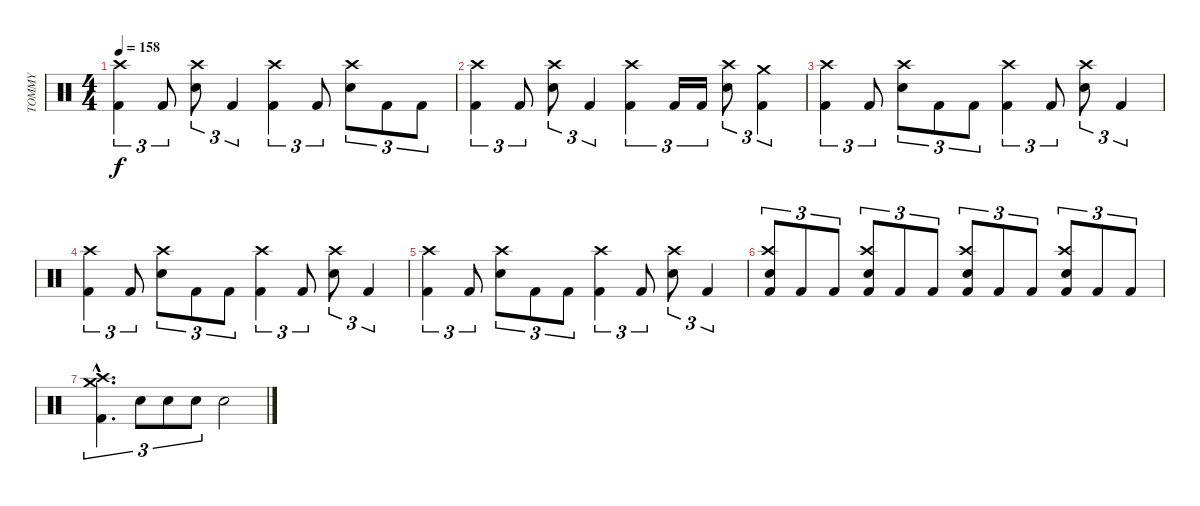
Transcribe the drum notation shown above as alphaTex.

\track ("TOMMY" "TOMMY") {instrument percussion}
\staff {score}
\articulation defaults
\ts (4 4)
\tempo 158
\clef neutral
\ks c
("Kick (hit) 2" "Crash high (hit)").4{tu (3 2) dy f} "Kick (hit) 2".8{tu (3 2)} ("Snare (hit) 2" "Crash high (hit)").8{tu (3 2)} "Kick (hit) 2".4{tu (3 2)} ("Kick (hit) 2" "Crash high (hit)").4{tu (3 2)} "Kick (hit) 2".8{tu (3 2)} ("Snare (hit) 2" "Crash high (hit)").8{tu (3 2)} "Kick (hit) 2".8{tu (3 2)} "Kick (hit) 2".8{tu (3 2)} |
("Kick (hit) 2" "Crash high (hit)").4{tu (3 2)} "Kick (hit) 2".8{tu (3 2)} ("Snare (hit) 2" "Crash high (hit)").8{tu (3 2)} "Kick (hit) 2".4{tu (3 2)} ("Kick (hit) 2" "Crash high (hit)").4{tu (3 2)} "Kick (hit) 2".16{tu (3 2)} "Kick (hit) 2".16{tu (3 2)} ("Snare (hit) 2" "Crash high (hit)").8{tu (3 2)} ("Kick (hit) 2" "Crash medium (hit)").4{tu (3 2)} |
("Kick (hit) 2" "Crash high (hit)").4{tu (3 2)} "Kick (hit) 2".8{tu (3 2)} ("Snare (hit) 2" "Crash high (hit)").8{tu (3 2)} "Kick (hit) 2".8{tu (3 2)} "Kick (hit) 2".8{tu (3 2)} ("Kick (hit) 2" "Crash high (hit)").4{tu (3 2)} "Kick (hit) 2".8{tu (3 2)} ("Snare (hit) 2" "Crash high (hit)").8{tu (3 2)} "Kick (hit) 2".4{tu (3 2)} |
("Kick (hit) 2" "Crash high (hit)").4{tu (3 2)} "Kick (hit) 2".8{tu (3 2)} ("Snare (hit) 2" "Crash high (hit)").8{tu (3 2)} "Kick (hit) 2".8{tu (3 2)} "Kick (hit) 2".8{tu (3 2)} ("Kick (hit) 2" "Crash high (hit)").4{tu (3 2)} "Kick (hit) 2".8{tu (3 2)} ("Snare (hit) 2" "Crash high (hit)").8{tu (3 2)} "Kick (hit) 2".4{tu (3 2)} |
("Kick (hit) 2" "Crash high (hit)").4{tu (3 2)} "Kick (hit) 2".8{tu (3 2)} ("Snare (hit) 2" "Crash high (hit)").8{tu (3 2)} "Kick (hit) 2".8{tu (3 2)} "Kick (hit) 2".8{tu (3 2)} ("Kick (hit) 2" "Crash high (hit)").4{tu (3 2)} "Kick (hit) 2".8{tu (3 2)} ("Snare (hit) 2" "Crash high (hit)").8{tu (3 2)} "Kick (hit) 2".4{tu (3 2)} |
("Snare (hit) 2" "Kick (hit) 2" "Crash high (hit)").8{tu (3 2)} "Kick (hit) 2".8{tu (3 2)} "Kick (hit) 2".8{tu (3 2)} ("Snare (hit) 2" "Kick (hit) 2" "Crash high (hit)").8{tu (3 2)} "Kick (hit) 2".8{tu (3 2)} "Kick (hit) 2".8{tu (3 2)} ("Snare (hit) 2" "Kick (hit) 2" "Crash high (hit)").8{tu (3 2)} "Kick (hit) 2".8{tu (3 2)} "Kick (hit) 2".8{tu (3 2)} ("Snare (hit) 2" "Kick (hit) 2" "Crash high (hit)").8{tu (3 2)} "Kick (hit) 2".8{tu (3 2)} "Kick (hit) 2".8{tu (3 2)} |
("Kick (hit) 2"{hac} "Crash high (hit)"{hac} "Crash medium (hit)"{hac}).4{d tu (3 2)} "Snare (hit) 2".8{tu (3 2)} "Snare (hit) 2".8{tu (3 2)} "Snare (hit) 2".8{tu (3 2)} "Snare (hit) 2".2
